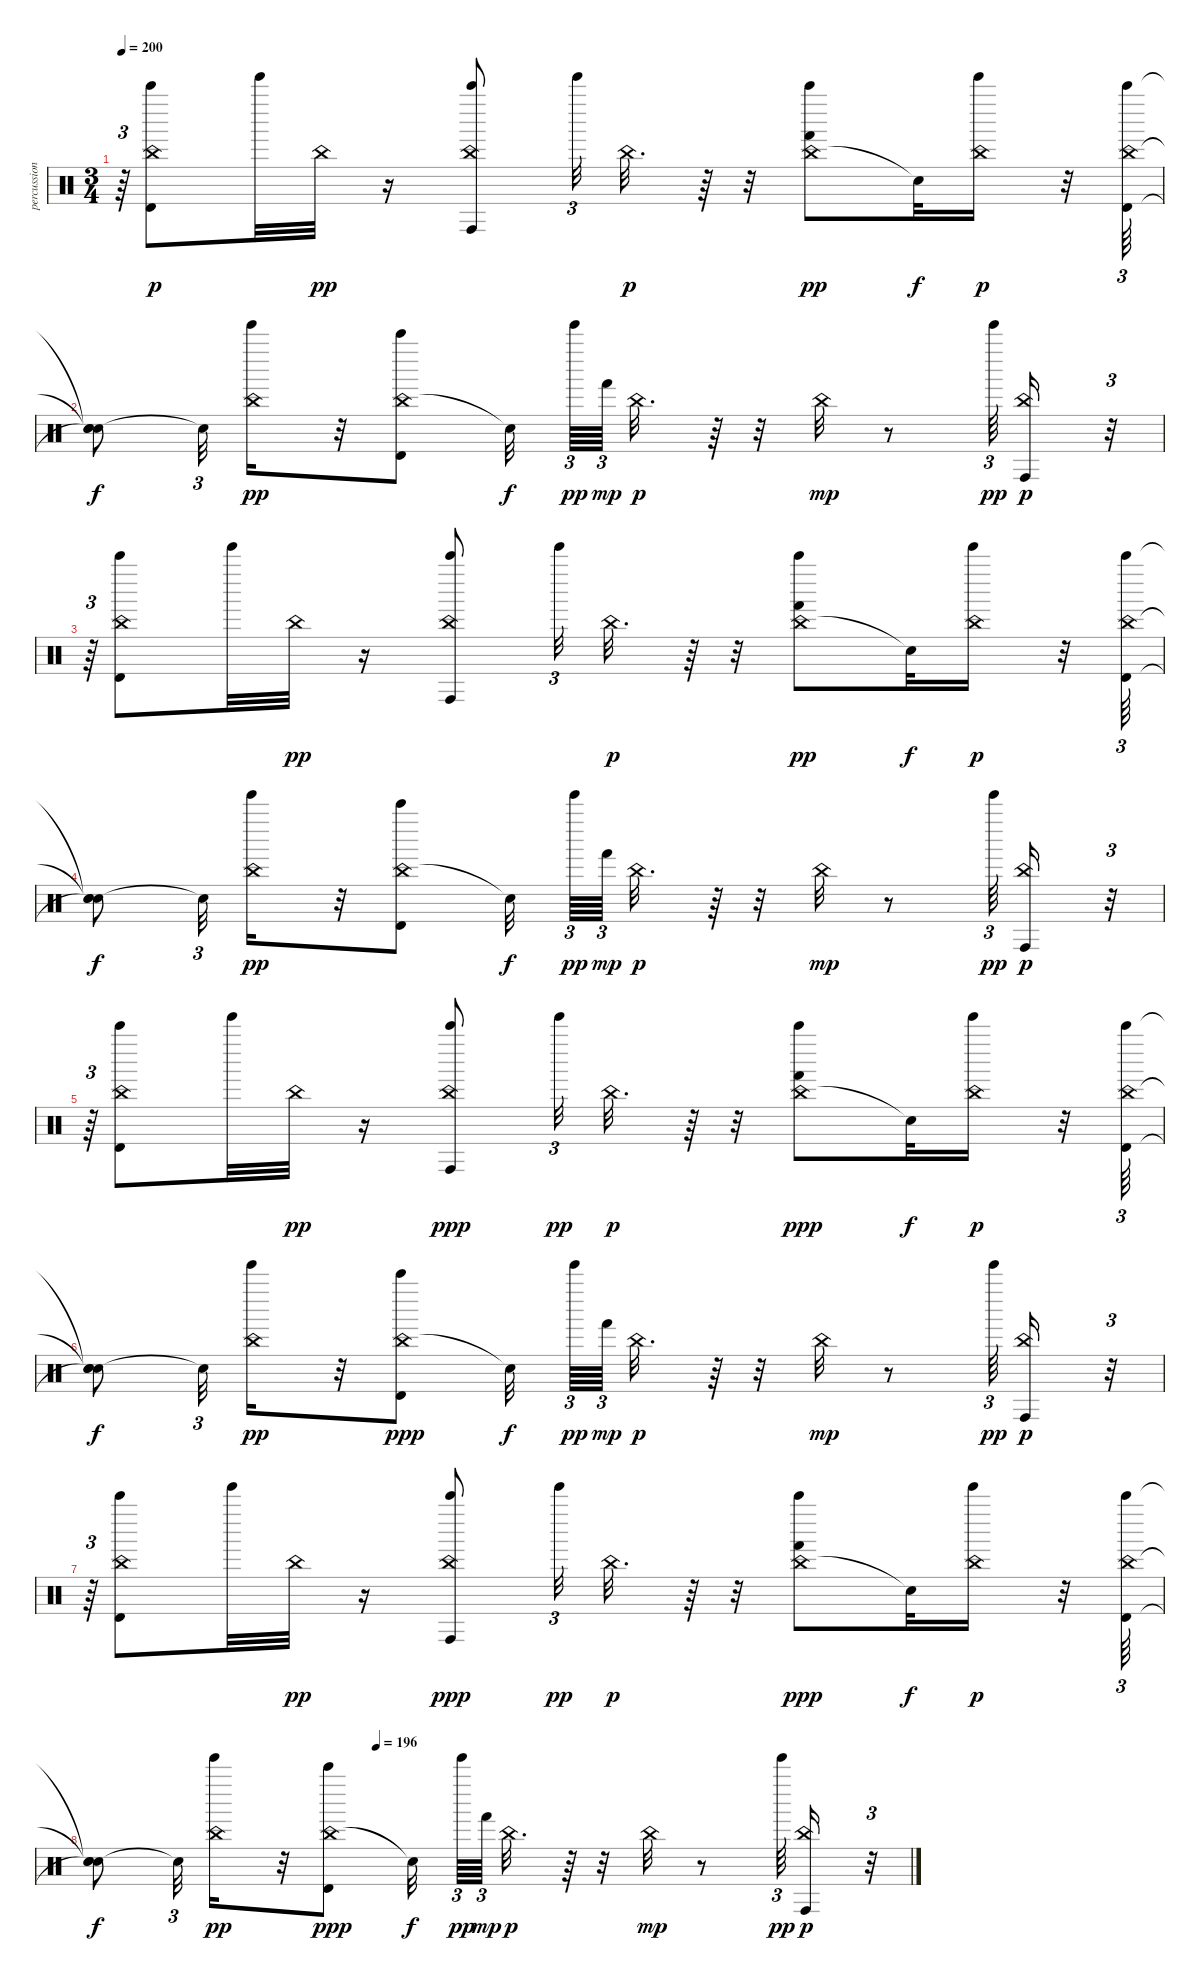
\track ("percussion" "percussion") {instrument percussion}
\staff {score}
\articulation defaults
\ts (3 4)
\tempo 200
\clef neutral
\ks c
r.64{tu (3 2) dy p} ("China (hit)" "Timbale high (hit)" "Bell Tree (hit)").8 "Tinkle Bell (hit)".32 "China (hit)".32{dy pp} r.16 ("China (hit)" "Conga high (hit)" "Bell Tree (hit)").8 "Tinkle Bell (hit)".32{tu (3 2)} "China (hit)".32{d dy p} r.64 r.32 ("China (hit)" "Hand (hit)" "Bell Tree (hit)").8{dy pp} "Snare (hit)"{t}.32{dy f} ("Tinkle Bell (hit)" "China (hit)").16{dy p} r.32 ("China (hit)" "Timbale high (hit)" "Bell Tree (hit)").64{tu (3 2)} |
("Snare (hit)"{t} "Snare (hit)"{t} "Snare (hit)"{t}).8{dy f} "Snare (hit)"{t}.32{tu (3 2)} ("Tinkle Bell (hit)" "China (hit)").16{dy pp} r.32 ("China (hit)" "Timbale high (hit)" "Bell Tree (hit)").8 "Snare (hit)"{t}.32{dy f} "Tinkle Bell (hit)".64{tu (3 2) dy pp} "Hand (hit)".64{tu (3 2) dy mp} "China (hit)".32{d dy p} r.64 r.32 "China (hit)".32{dy mp} r.8 "Tinkle Bell (hit)".64{tu (3 2) dy pp} ("Conga high (hit)" "China (hit)").16{dy p} r.32{tu (3 2)} |
r.64{tu (3 2)} ("China (hit)" "Timbale high (hit)" "Bell Tree (hit)").8 "Tinkle Bell (hit)".32 "China (hit)".32{dy pp} r.16 ("China (hit)" "Conga high (hit)" "Bell Tree (hit)").8 "Tinkle Bell (hit)".32{tu (3 2)} "China (hit)".32{d dy p} r.64 r.32 ("China (hit)" "Hand (hit)" "Bell Tree (hit)").8{dy pp} "Snare (hit)"{t}.32{dy f} ("Tinkle Bell (hit)" "China (hit)").16{dy p} r.32 ("China (hit)" "Timbale high (hit)" "Bell Tree (hit)").64{tu (3 2)} |
("Snare (hit)"{t} "Snare (hit)"{t} "Snare (hit)"{t}).8{dy f} "Snare (hit)"{t}.32{tu (3 2)} ("Tinkle Bell (hit)" "China (hit)").16{dy pp} r.32 ("China (hit)" "Timbale high (hit)" "Bell Tree (hit)").8 "Snare (hit)"{t}.32{dy f} "Tinkle Bell (hit)".64{tu (3 2) dy pp} "Hand (hit)".64{tu (3 2) dy mp} "China (hit)".32{d dy p} r.64 r.32 "China (hit)".32{dy mp} r.8 "Tinkle Bell (hit)".64{tu (3 2) dy pp} ("Conga high (hit)" "China (hit)").16{dy p} r.32{tu (3 2)} |
r.64{tu (3 2)} ("China (hit)" "Timbale high (hit)" "Bell Tree (hit)").8 "Tinkle Bell (hit)".32 "China (hit)".32{dy pp} r.16 ("China (hit)" "Conga high (hit)" "Bell Tree (hit)").8{dy ppp} "Tinkle Bell (hit)".32{tu (3 2) dy pp} "China (hit)".32{d dy p} r.64 r.32 ("China (hit)" "Hand (hit)" "Bell Tree (hit)").8{dy ppp} "Snare (hit)"{t}.32{dy f} ("Tinkle Bell (hit)" "China (hit)").16{dy p} r.32 ("China (hit)" "Timbale high (hit)" "Bell Tree (hit)").64{tu (3 2)} |
("Snare (hit)"{t} "Snare (hit)"{t} "Snare (hit)"{t}).8{dy f} "Snare (hit)"{t}.32{tu (3 2)} ("Tinkle Bell (hit)" "China (hit)").16{dy pp} r.32 ("China (hit)" "Timbale high (hit)" "Bell Tree (hit)").8{dy ppp} "Snare (hit)"{t}.32{dy f} "Tinkle Bell (hit)".64{tu (3 2) dy pp} "Hand (hit)".64{tu (3 2) dy mp} "China (hit)".32{d dy p} r.64 r.32 "China (hit)".32{dy mp} r.8 "Tinkle Bell (hit)".64{tu (3 2) dy pp} ("Conga high (hit)" "China (hit)").16{dy p} r.32{tu (3 2)} |
r.64{tu (3 2)} ("China (hit)" "Timbale high (hit)" "Bell Tree (hit)").8 "Tinkle Bell (hit)".32 "China (hit)".32{dy pp} r.16 ("China (hit)" "Conga high (hit)" "Bell Tree (hit)").8{dy ppp} "Tinkle Bell (hit)".32{tu (3 2) dy pp} "China (hit)".32{d dy p} r.64 r.32 ("China (hit)" "Hand (hit)" "Bell Tree (hit)").8{dy ppp} "Snare (hit)"{t}.32{dy f} ("Tinkle Bell (hit)" "China (hit)").16{dy p} r.32 ("China (hit)" "Timbale high (hit)" "Bell Tree (hit)").64{tu (3 2)} |
\tempo (196 0.3472222222222222)
("Snare (hit)"{t} "Snare (hit)"{t} "Snare (hit)"{t}).8{dy f} "Snare (hit)"{t}.32{tu (3 2)} ("Tinkle Bell (hit)" "China (hit)").16{dy pp} r.32 ("China (hit)" "Timbale high (hit)" "Bell Tree (hit)").8{dy ppp} "Snare (hit)"{t}.32{dy f} "Tinkle Bell (hit)".64{tu (3 2) dy pp} "Hand (hit)".64{tu (3 2) dy mp} "China (hit)".32{d dy p} r.64 r.32 "China (hit)".32{dy mp} r.8 "Tinkle Bell (hit)".64{tu (3 2) dy pp} ("Conga high (hit)" "China (hit)").16{dy p} r.32{tu (3 2)}
